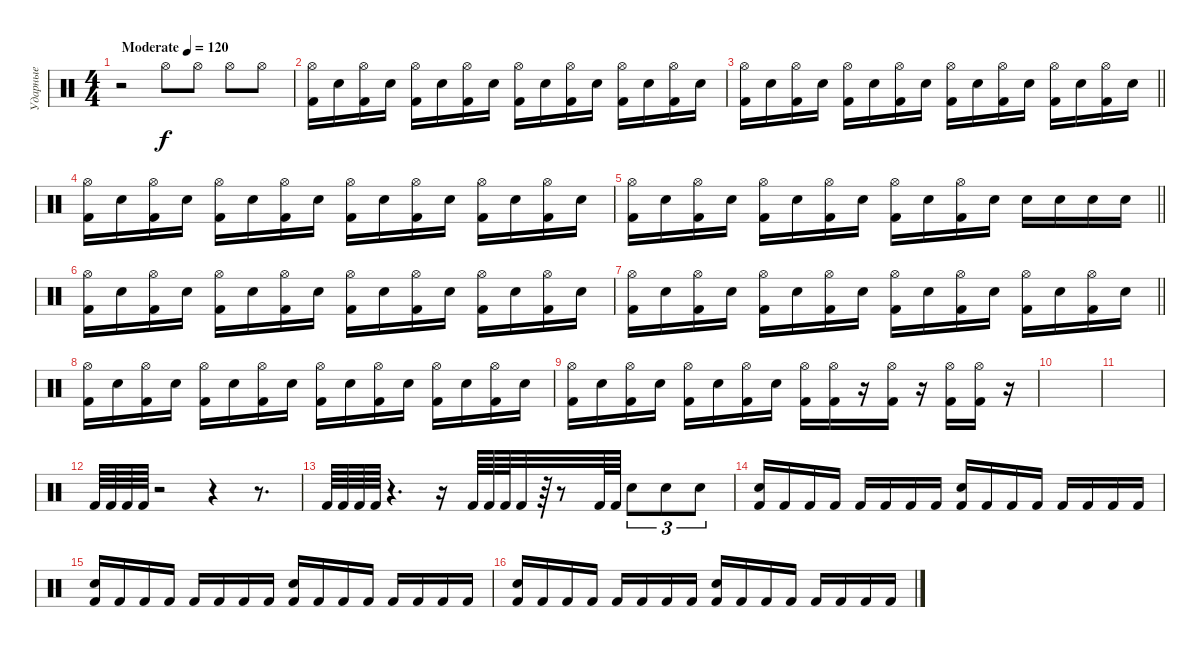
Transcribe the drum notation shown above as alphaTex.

\track ("Ударные" "Ударные") {instrument percussion}
\staff {score}
\articulation defaults
\ts (4 4)
\tempo (120 "Moderate")
\clef neutral
\ks c
r.2{dy f} "Hi-Hat (open)".8 "Hi-Hat (open)".8 "Hi-Hat (open)".8 "Hi-Hat (open)".8 |
("Hi-Hat (open)" "Kick (hit) 2").16 "Electric Snare (hit)".16 ("Hi-Hat (open)" "Kick (hit) 2").16 "Electric Snare (hit)".16 ("Hi-Hat (open)" "Kick (hit) 2").16 "Electric Snare (hit)".16 ("Hi-Hat (open)" "Kick (hit) 2").16 "Electric Snare (hit)".16 ("Hi-Hat (open)" "Kick (hit) 2").16 "Electric Snare (hit)".16 ("Hi-Hat (open)" "Kick (hit) 2").16 "Electric Snare (hit)".16 ("Hi-Hat (open)" "Kick (hit) 2").16 "Electric Snare (hit)".16 ("Hi-Hat (open)" "Kick (hit) 2").16 "Electric Snare (hit)".16 |
\barLineRight lightlight
("Hi-Hat (open)" "Kick (hit) 2").16 "Electric Snare (hit)".16 ("Hi-Hat (open)" "Kick (hit) 2").16 "Electric Snare (hit)".16 ("Hi-Hat (open)" "Kick (hit) 2").16 "Electric Snare (hit)".16 ("Hi-Hat (open)" "Kick (hit) 2").16 "Electric Snare (hit)".16 ("Hi-Hat (open)" "Kick (hit) 2").16 "Electric Snare (hit)".16 ("Hi-Hat (open)" "Kick (hit) 2").16 "Electric Snare (hit)".16 ("Hi-Hat (open)" "Kick (hit) 2").16 "Electric Snare (hit)".16 ("Hi-Hat (open)" "Kick (hit) 2").16 "Electric Snare (hit)".16 |
("Hi-Hat (open)" "Kick (hit) 2").16 "Electric Snare (hit)".16 ("Hi-Hat (open)" "Kick (hit) 2").16 "Electric Snare (hit)".16 ("Hi-Hat (open)" "Kick (hit) 2").16 "Electric Snare (hit)".16 ("Hi-Hat (open)" "Kick (hit) 2").16 "Electric Snare (hit)".16 ("Hi-Hat (open)" "Kick (hit) 2").16 "Electric Snare (hit)".16 ("Hi-Hat (open)" "Kick (hit) 2").16 "Electric Snare (hit)".16 ("Hi-Hat (open)" "Kick (hit) 2").16 "Electric Snare (hit)".16 ("Hi-Hat (open)" "Kick (hit) 2").16 "Electric Snare (hit)".16 |
\barLineRight lightlight
("Hi-Hat (open)" "Kick (hit) 2").16 "Electric Snare (hit)".16 ("Hi-Hat (open)" "Kick (hit) 2").16 "Electric Snare (hit)".16 ("Hi-Hat (open)" "Kick (hit) 2").16 "Electric Snare (hit)".16 ("Hi-Hat (open)" "Kick (hit) 2").16 "Electric Snare (hit)".16 ("Hi-Hat (open)" "Kick (hit) 2").16 "Electric Snare (hit)".16 ("Hi-Hat (open)" "Kick (hit) 2").16 "Electric Snare (hit)".16 "Electric Snare (hit)".16 "Electric Snare (hit)".16 "Electric Snare (hit)".16 "Electric Snare (hit)".16 |
("Hi-Hat (open)" "Kick (hit) 2").16 "Electric Snare (hit)".16 ("Hi-Hat (open)" "Kick (hit) 2").16 "Electric Snare (hit)".16 ("Hi-Hat (open)" "Kick (hit) 2").16 "Electric Snare (hit)".16 ("Hi-Hat (open)" "Kick (hit) 2").16 "Electric Snare (hit)".16 ("Hi-Hat (open)" "Kick (hit) 2").16 "Electric Snare (hit)".16 ("Hi-Hat (open)" "Kick (hit) 2").16 "Electric Snare (hit)".16 ("Hi-Hat (open)" "Kick (hit) 2").16 "Electric Snare (hit)".16 ("Hi-Hat (open)" "Kick (hit) 2").16 "Electric Snare (hit)".16 |
\barLineRight lightlight
("Hi-Hat (open)" "Kick (hit) 2").16 "Electric Snare (hit)".16 ("Hi-Hat (open)" "Kick (hit) 2").16 "Electric Snare (hit)".16 ("Hi-Hat (open)" "Kick (hit) 2").16 "Electric Snare (hit)".16 ("Hi-Hat (open)" "Kick (hit) 2").16 "Electric Snare (hit)".16 ("Hi-Hat (open)" "Kick (hit) 2").16 "Electric Snare (hit)".16 ("Hi-Hat (open)" "Kick (hit) 2").16 "Electric Snare (hit)".16 ("Hi-Hat (open)" "Kick (hit) 2").16 "Electric Snare (hit)".16 ("Hi-Hat (open)" "Kick (hit) 2").16 "Electric Snare (hit)".16 |
("Hi-Hat (open)" "Kick (hit) 2").16 "Electric Snare (hit)".16 ("Hi-Hat (open)" "Kick (hit) 2").16 "Electric Snare (hit)".16 ("Hi-Hat (open)" "Kick (hit) 2").16 "Electric Snare (hit)".16 ("Hi-Hat (open)" "Kick (hit) 2").16 "Electric Snare (hit)".16 ("Hi-Hat (open)" "Kick (hit) 2").16 "Electric Snare (hit)".16 ("Hi-Hat (open)" "Kick (hit) 2").16 "Electric Snare (hit)".16 ("Hi-Hat (open)" "Kick (hit) 2").16 "Electric Snare (hit)".16 ("Hi-Hat (open)" "Kick (hit) 2").16 "Electric Snare (hit)".16 |
("Hi-Hat (open)" "Kick (hit) 2").16 "Electric Snare (hit)".16 ("Hi-Hat (open)" "Kick (hit) 2").16 "Electric Snare (hit)".16 ("Hi-Hat (open)" "Kick (hit) 2").16 "Electric Snare (hit)".16 ("Hi-Hat (open)" "Kick (hit) 2").16 "Electric Snare (hit)".16 ("Hi-Hat (open)" "Kick (hit) 2").16 ("Hi-Hat (open)" "Kick (hit) 2").16 r.16 ("Hi-Hat (open)" "Kick (hit) 2").16 r.16 ("Hi-Hat (open)" "Kick (hit) 2").16 ("Hi-Hat (open)" "Kick (hit) 2").16 r.16 |
|
|
"Kick (hit) 2".64 "Kick (hit) 2".64 "Kick (hit) 2".64 "Kick (hit) 2".64 r.2 r.4 r.8{d} |
"Kick (hit) 2".64 "Kick (hit) 2".64 "Kick (hit) 2".64 "Kick (hit) 2".64 r.4{d} r.16 "Kick (hit) 2".64 "Kick (hit) 2".64 "Kick (hit) 2".64 "Kick (hit) 2".32 r.64 r.8 "Kick (hit) 2".64 "Kick (hit) 2".64 "Electric Snare (hit)".8{tu (3 2)} "Electric Snare (hit)".8{tu (3 2)} "Electric Snare (hit)".8{tu (3 2)} |
("Electric Snare (hit)" "Kick (hit) 2").16 "Kick (hit) 2".16 "Kick (hit) 2".16 "Kick (hit) 2".16 "Kick (hit) 2".16 "Kick (hit) 2".16 "Kick (hit) 2".16 "Kick (hit) 2".16 ("Electric Snare (hit)" "Kick (hit) 2").16 "Kick (hit) 2".16 "Kick (hit) 2".16 "Kick (hit) 2".16 "Kick (hit) 2".16 "Kick (hit) 2".16 "Kick (hit) 2".16 "Kick (hit) 2".16 |
("Electric Snare (hit)" "Kick (hit) 2").16 "Kick (hit) 2".16 "Kick (hit) 2".16 "Kick (hit) 2".16 "Kick (hit) 2".16 "Kick (hit) 2".16 "Kick (hit) 2".16 "Kick (hit) 2".16 ("Electric Snare (hit)" "Kick (hit) 2").16 "Kick (hit) 2".16 "Kick (hit) 2".16 "Kick (hit) 2".16 "Kick (hit) 2".16 "Kick (hit) 2".16 "Kick (hit) 2".16 "Kick (hit) 2".16 |
("Electric Snare (hit)" "Kick (hit) 2").16 "Kick (hit) 2".16 "Kick (hit) 2".16 "Kick (hit) 2".16 "Kick (hit) 2".16 "Kick (hit) 2".16 "Kick (hit) 2".16 "Kick (hit) 2".16 ("Electric Snare (hit)" "Kick (hit) 2").16 "Kick (hit) 2".16 "Kick (hit) 2".16 "Kick (hit) 2".16 "Kick (hit) 2".16 "Kick (hit) 2".16 "Kick (hit) 2".16 "Kick (hit) 2".16
